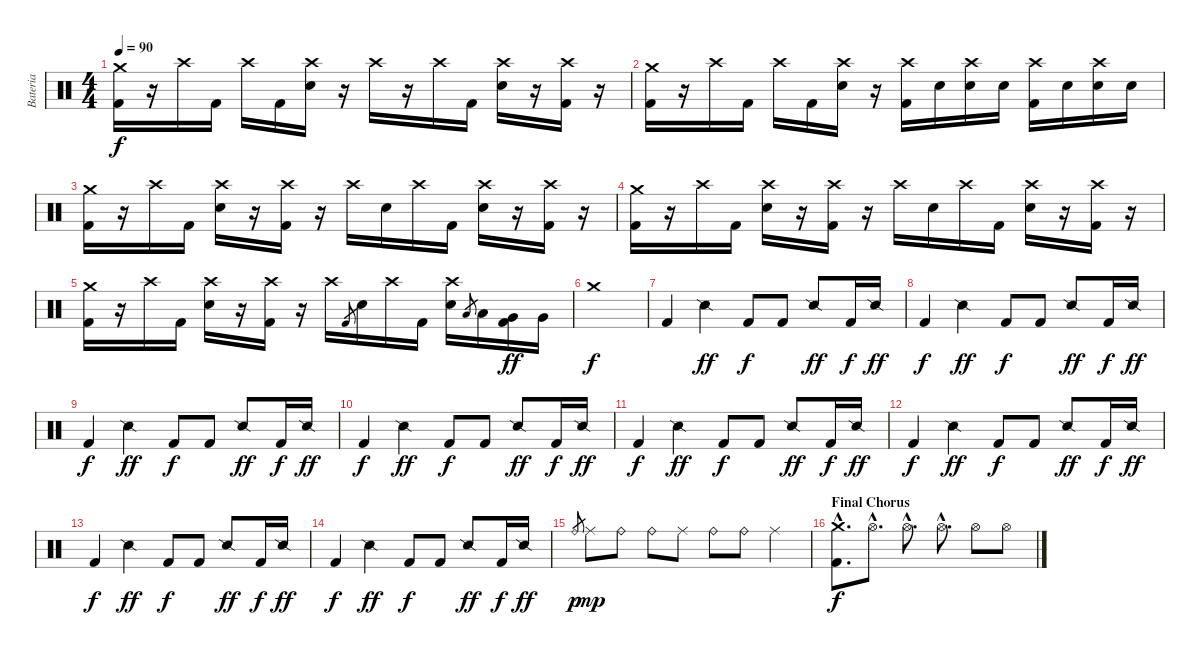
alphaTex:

\track ("Bateria" "Bateria") {instrument percussion}
\staff {score}
\articulation defaults
\ts (4 4)
\tempo 90
\clef neutral
\ks c
("Crash medium (hit)" "Kick (hit) 2").16{dy f} r.16 "Crash high (hit)".16 "Kick (hit) 2".16 "Crash high (hit)".16 "Kick (hit) 2".16 ("Crash high (hit)" "Electric Snare (hit)").16 r.16 "Crash high (hit)".16 r.16 "Crash high (hit)".16 "Kick (hit) 2".16 ("Crash high (hit)" "Electric Snare (hit)").16 r.16 ("Crash high (hit)" "Kick (hit) 2").16 r.16 |
("Crash medium (hit)" "Kick (hit) 2").16 r.16 "Crash high (hit)".16 "Kick (hit) 2".16 "Crash high (hit)".16 "Kick (hit) 2".16 ("Crash high (hit)" "Electric Snare (hit)").16 r.16 ("Crash high (hit)" "Kick (hit) 2").16 "Electric Snare (hit)".16 ("Crash high (hit)" "Electric Snare (hit)").16 "Electric Snare (hit)".16 ("Crash high (hit)" "Kick (hit) 2").16 "Electric Snare (hit)".16 ("Crash high (hit)" "Electric Snare (hit)").16 "Electric Snare (hit)".16 |
("Crash medium (hit)" "Kick (hit) 2").16 r.16 "Crash high (hit)".16 "Kick (hit) 2".16 ("Crash high (hit)" "Electric Snare (hit)").16 r.16 ("Crash high (hit)" "Kick (hit) 2").16 r.16 "Crash high (hit)".16 "Electric Snare (hit)".16 "Crash high (hit)".16 "Kick (hit) 2".16 ("Crash high (hit)" "Electric Snare (hit)").16 r.16 ("Crash high (hit)" "Kick (hit) 2").16 r.16 |
("Crash medium (hit)" "Kick (hit) 2").16 r.16 "Crash high (hit)".16 "Kick (hit) 2".16 ("Crash high (hit)" "Electric Snare (hit)").16 r.16 ("Crash high (hit)" "Kick (hit) 2").16 r.16 "Crash high (hit)".16 "Electric Snare (hit)".16 "Crash high (hit)".16 "Kick (hit) 2".16 ("Crash high (hit)" "Electric Snare (hit)").16 r.16 ("Crash high (hit)" "Kick (hit) 2").16 r.16 |
("Crash medium (hit)" "Kick (hit) 2").16 r.16 "Crash high (hit)".16 "Kick (hit) 2".16 ("Crash high (hit)" "Electric Snare (hit)").16 r.16 ("Crash high (hit)" "Kick (hit) 2").16 r.16 "Crash high (hit)".16 "Kick (hit) 2".8{gr} "Electric Snare (hit)".16 "Crash high (hit)".16 "Kick (hit) 2".16 ("Crash high (hit)" "Electric Snare (hit)").16 "Low Tom (hit)".8{gr} "Low Tom (hit)".16 ("Very Low Tom (hit)" "Kick (hit) 2").16{dy ff} "Very Low Tom (hit)".16 |
"Crash medium (hit)".1{dy f} |
"Kick (hit) 2".4 "Snare (side stick) 2".4{dy ff} "Kick (hit) 2".8{dy f} "Kick (hit) 2".8 "Snare (side stick) 2".8{dy ff} "Kick (hit) 2".16{dy f} "Snare (side stick) 2".16{dy ff} |
\section ("" "")
"Kick (hit) 2".4{dy f} "Snare (side stick) 2".4{dy ff} "Kick (hit) 2".8{dy f} "Kick (hit) 2".8 "Snare (side stick) 2".8{dy ff} "Kick (hit) 2".16{dy f} "Snare (side stick) 2".16{dy ff} |
"Kick (hit) 2".4{dy f} "Snare (side stick) 2".4{dy ff} "Kick (hit) 2".8{dy f} "Kick (hit) 2".8 "Snare (side stick) 2".8{dy ff} "Kick (hit) 2".16{dy f} "Snare (side stick) 2".16{dy ff} |
"Kick (hit) 2".4{dy f} "Snare (side stick) 2".4{dy ff} "Kick (hit) 2".8{dy f} "Kick (hit) 2".8 "Snare (side stick) 2".8{dy ff} "Kick (hit) 2".16{dy f} "Snare (side stick) 2".16{dy ff} |
"Kick (hit) 2".4{dy f} "Snare (side stick) 2".4{dy ff} "Kick (hit) 2".8{dy f} "Kick (hit) 2".8 "Snare (side stick) 2".8{dy ff} "Kick (hit) 2".16{dy f} "Snare (side stick) 2".16{dy ff} |
"Kick (hit) 2".4{dy f} "Snare (side stick) 2".4{dy ff} "Kick (hit) 2".8{dy f} "Kick (hit) 2".8 "Snare (side stick) 2".8{dy ff} "Kick (hit) 2".16{dy f} "Snare (side stick) 2".16{dy ff} |
"Kick (hit) 2".4{dy f} "Snare (side stick) 2".4{dy ff} "Kick (hit) 2".8{dy f} "Kick (hit) 2".8 "Snare (side stick) 2".8{dy ff} "Kick (hit) 2".16{dy f} "Snare (side stick) 2".16{dy ff} |
"Kick (hit) 2".4{dy f} "Snare (side stick) 2".4{dy ff} "Kick (hit) 2".8{dy f} "Kick (hit) 2".8 "Snare (side stick) 2".8{dy ff} "Kick (hit) 2".16{dy f} "Snare (side stick) 2".16{dy ff} |
"Ride (bell)".8{gr dy p} "Ride (middle)".8{dy mp} "Ride (bell)".8 "Ride (bell)".8 "Ride (middle)".8 "Ride (bell)".8 "Ride (bell)".8 "Ride (middle)".4 |
\section ("" "Final Chorus")
("Crash medium (hit)"{hac} "Kick (hit) 2"{hac}).8{d dy f} "Hi-Hat (open)"{hac}.8{d} "Hi-Hat (open)"{hac}.8{d} "Hi-Hat (open)"{hac}.8{d} "Hi-Hat (open)".8 "Hi-Hat (open)".8
